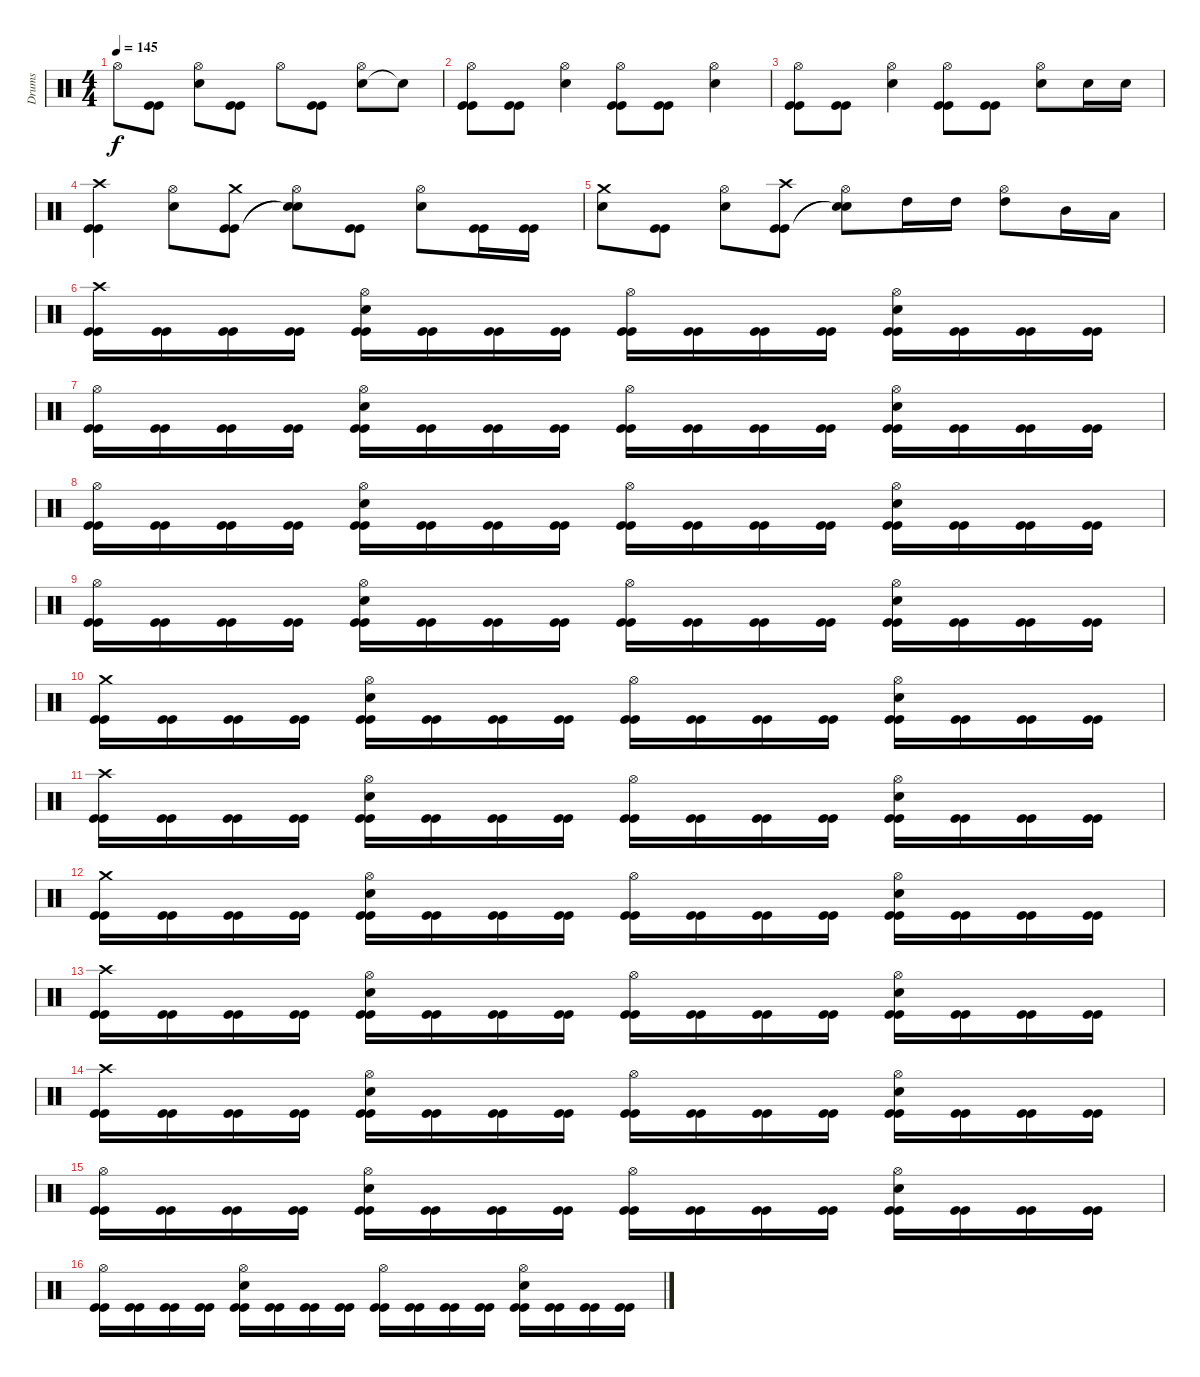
\track ("Drums" "Drums") {instrument percussion}
\staff {score}
\articulation defaults
\ts (4 4)
\tempo 145
\clef neutral
\ks c "Hi-Hat (open)".8{dy f}
("Kick (hit)" "Kick (hit)").8 ("Snare (hit) 2" "Hi-Hat (open)").8 ("Kick (hit)" "Kick (hit)").8 "Hi-Hat (open)".8 ("Kick (hit)" "Kick (hit)").8 ("Snare (hit) 2" "Hi-Hat (open)").8 "Snare (hit)"{t}.8 |
("Kick (hit)" "Kick (hit)" "Hi-Hat (open)").8 ("Kick (hit)" "Kick (hit)").8 ("Snare (hit) 2" "Hi-Hat (open)").4 ("Kick (hit)" "Kick (hit)" "Hi-Hat (open)").8 ("Kick (hit)" "Kick (hit)").8 ("Snare (hit) 2" "Hi-Hat (open)").4 |
("Kick (hit)" "Kick (hit)" "Hi-Hat (open)").8 ("Kick (hit)" "Kick (hit)").8 ("Snare (hit) 2" "Hi-Hat (open)").4 ("Kick (hit)" "Kick (hit)" "Hi-Hat (open)").8 ("Kick (hit)" "Kick (hit)").8 ("Snare (hit) 2" "Hi-Hat (open)").8 "Snare (hit) 2".16 "Snare (hit) 2".16 |
("Kick (hit)" "Kick (hit)" "Crash high (hit)").4 ("Snare (hit) 2" "Hi-Hat (open)").8 ("Kick (hit)" "Kick (hit)" "Crash medium (hit)").8 ("Snare (hit)"{t} "Snare (hit)"{t} "Hi-Hat (open)").8 ("Kick (hit)" "Kick (hit)").8 ("Snare (hit) 2" "Hi-Hat (open)").8 ("Kick (hit)" "Kick (hit)").16 ("Kick (hit)" "Kick (hit)").16 |
("Snare (hit) 2" "Crash medium (hit)").8 ("Kick (hit)" "Kick (hit)").8 ("Snare (hit) 2" "Hi-Hat (open)").8 ("Kick (hit)" "Kick (hit)" "Crash high (hit)").8 ("Snare (hit)"{t} "Snare (hit)"{t} "Hi-Hat (open)").8 "High Tom (hit)".16 "High Tom (hit)".16 ("High Tom (hit)" "Hi-Hat (open)").8 "Mid Tom (hit)".16 "Low Tom (hit)".16 |
("Kick (hit)" "Kick (hit)" "Crash high (hit)").16 ("Kick (hit)" "Kick (hit)").16 ("Kick (hit)" "Kick (hit)").16 ("Kick (hit)" "Kick (hit)").16 ("Kick (hit)" "Kick (hit)" "Snare (hit) 2" "Hi-Hat (open)").16 ("Kick (hit)" "Kick (hit)").16 ("Kick (hit)" "Kick (hit)").16 ("Kick (hit)" "Kick (hit)").16 ("Kick (hit)" "Kick (hit)" "Hi-Hat (open)").16 ("Kick (hit)" "Kick (hit)").16 ("Kick (hit)" "Kick (hit)").16 ("Kick (hit)" "Kick (hit)").16 ("Kick (hit)" "Kick (hit)" "Snare (hit) 2" "Hi-Hat (open)").16 ("Kick (hit)" "Kick (hit)").16 ("Kick (hit)" "Kick (hit)").16 ("Kick (hit)" "Kick (hit)").16 |
("Kick (hit)" "Kick (hit)" "Hi-Hat (open)").16 ("Kick (hit)" "Kick (hit)").16 ("Kick (hit)" "Kick (hit)").16 ("Kick (hit)" "Kick (hit)").16 ("Kick (hit)" "Kick (hit)" "Snare (hit) 2" "Hi-Hat (open)").16 ("Kick (hit)" "Kick (hit)").16 ("Kick (hit)" "Kick (hit)").16 ("Kick (hit)" "Kick (hit)").16 ("Kick (hit)" "Kick (hit)" "Hi-Hat (open)").16 ("Kick (hit)" "Kick (hit)").16 ("Kick (hit)" "Kick (hit)").16 ("Kick (hit)" "Kick (hit)").16 ("Kick (hit)" "Kick (hit)" "Snare (hit) 2" "Hi-Hat (open)").16 ("Kick (hit)" "Kick (hit)").16 ("Kick (hit)" "Kick (hit)").16 ("Kick (hit)" "Kick (hit)").16 |
("Kick (hit)" "Kick (hit)" "Hi-Hat (open)").16 ("Kick (hit)" "Kick (hit)").16 ("Kick (hit)" "Kick (hit)").16 ("Kick (hit)" "Kick (hit)").16 ("Kick (hit)" "Kick (hit)" "Snare (hit) 2" "Hi-Hat (open)").16 ("Kick (hit)" "Kick (hit)").16 ("Kick (hit)" "Kick (hit)").16 ("Kick (hit)" "Kick (hit)").16 ("Kick (hit)" "Kick (hit)" "Hi-Hat (open)").16 ("Kick (hit)" "Kick (hit)").16 ("Kick (hit)" "Kick (hit)").16 ("Kick (hit)" "Kick (hit)").16 ("Kick (hit)" "Kick (hit)" "Snare (hit) 2" "Hi-Hat (open)").16 ("Kick (hit)" "Kick (hit)").16 ("Kick (hit)" "Kick (hit)").16 ("Kick (hit)" "Kick (hit)").16 |
("Kick (hit)" "Kick (hit)" "Hi-Hat (open)").16 ("Kick (hit)" "Kick (hit)").16 ("Kick (hit)" "Kick (hit)").16 ("Kick (hit)" "Kick (hit)").16 ("Kick (hit)" "Kick (hit)" "Snare (hit) 2" "Hi-Hat (open)").16 ("Kick (hit)" "Kick (hit)").16 ("Kick (hit)" "Kick (hit)").16 ("Kick (hit)" "Kick (hit)").16 ("Kick (hit)" "Kick (hit)" "Hi-Hat (open)").16 ("Kick (hit)" "Kick (hit)").16 ("Kick (hit)" "Kick (hit)").16 ("Kick (hit)" "Kick (hit)").16 ("Kick (hit)" "Kick (hit)" "Snare (hit) 2" "Hi-Hat (open)").16 ("Kick (hit)" "Kick (hit)").16 ("Kick (hit)" "Kick (hit)").16 ("Kick (hit)" "Kick (hit)").16 |
("Kick (hit)" "Kick (hit)" "Crash medium (hit)").16 ("Kick (hit)" "Kick (hit)").16 ("Kick (hit)" "Kick (hit)").16 ("Kick (hit)" "Kick (hit)").16 ("Kick (hit)" "Kick (hit)" "Snare (hit) 2" "Hi-Hat (open)").16 ("Kick (hit)" "Kick (hit)").16 ("Kick (hit)" "Kick (hit)").16 ("Kick (hit)" "Kick (hit)").16 ("Kick (hit)" "Kick (hit)" "Hi-Hat (open)").16 ("Kick (hit)" "Kick (hit)").16 ("Kick (hit)" "Kick (hit)").16 ("Kick (hit)" "Kick (hit)").16 ("Kick (hit)" "Kick (hit)" "Snare (hit) 2" "Hi-Hat (open)").16 ("Kick (hit)" "Kick (hit)").16 ("Kick (hit)" "Kick (hit)").16 ("Kick (hit)" "Kick (hit)").16 |
("Kick (hit)" "Kick (hit)" "Crash high (hit)").16 ("Kick (hit)" "Kick (hit)").16 ("Kick (hit)" "Kick (hit)").16 ("Kick (hit)" "Kick (hit)").16 ("Kick (hit)" "Kick (hit)" "Snare (hit) 2" "Hi-Hat (open)").16 ("Kick (hit)" "Kick (hit)").16 ("Kick (hit)" "Kick (hit)").16 ("Kick (hit)" "Kick (hit)").16 ("Kick (hit)" "Kick (hit)" "Hi-Hat (open)").16 ("Kick (hit)" "Kick (hit)").16 ("Kick (hit)" "Kick (hit)").16 ("Kick (hit)" "Kick (hit)").16 ("Kick (hit)" "Kick (hit)" "Snare (hit) 2" "Hi-Hat (open)").16 ("Kick (hit)" "Kick (hit)").16 ("Kick (hit)" "Kick (hit)").16 ("Kick (hit)" "Kick (hit)").16 |
("Kick (hit)" "Kick (hit)" "Crash medium (hit)").16 ("Kick (hit)" "Kick (hit)").16 ("Kick (hit)" "Kick (hit)").16 ("Kick (hit)" "Kick (hit)").16 ("Kick (hit)" "Kick (hit)" "Snare (hit) 2" "Hi-Hat (open)").16 ("Kick (hit)" "Kick (hit)").16 ("Kick (hit)" "Kick (hit)").16 ("Kick (hit)" "Kick (hit)").16 ("Kick (hit)" "Kick (hit)" "Hi-Hat (open)").16 ("Kick (hit)" "Kick (hit)").16 ("Kick (hit)" "Kick (hit)").16 ("Kick (hit)" "Kick (hit)").16 ("Kick (hit)" "Kick (hit)" "Snare (hit) 2" "Hi-Hat (open)").16 ("Kick (hit)" "Kick (hit)").16 ("Kick (hit)" "Kick (hit)").16 ("Kick (hit)" "Kick (hit)").16 |
("Kick (hit)" "Kick (hit)" "Crash high (hit)").16 ("Kick (hit)" "Kick (hit)").16 ("Kick (hit)" "Kick (hit)").16 ("Kick (hit)" "Kick (hit)").16 ("Kick (hit)" "Kick (hit)" "Snare (hit) 2" "Hi-Hat (open)").16 ("Kick (hit)" "Kick (hit)").16 ("Kick (hit)" "Kick (hit)").16 ("Kick (hit)" "Kick (hit)").16 ("Kick (hit)" "Kick (hit)" "Hi-Hat (open)").16 ("Kick (hit)" "Kick (hit)").16 ("Kick (hit)" "Kick (hit)").16 ("Kick (hit)" "Kick (hit)").16 ("Kick (hit)" "Kick (hit)" "Snare (hit) 2" "Hi-Hat (open)").16 ("Kick (hit)" "Kick (hit)").16 ("Kick (hit)" "Kick (hit)").16 ("Kick (hit)" "Kick (hit)").16 |
("Kick (hit)" "Kick (hit)" "Crash high (hit)").16 ("Kick (hit)" "Kick (hit)").16 ("Kick (hit)" "Kick (hit)").16 ("Kick (hit)" "Kick (hit)").16 ("Kick (hit)" "Kick (hit)" "Snare (hit) 2" "Hi-Hat (open)").16 ("Kick (hit)" "Kick (hit)").16 ("Kick (hit)" "Kick (hit)").16 ("Kick (hit)" "Kick (hit)").16 ("Kick (hit)" "Kick (hit)" "Hi-Hat (open)").16 ("Kick (hit)" "Kick (hit)").16 ("Kick (hit)" "Kick (hit)").16 ("Kick (hit)" "Kick (hit)").16 ("Kick (hit)" "Kick (hit)" "Snare (hit) 2" "Hi-Hat (open)").16 ("Kick (hit)" "Kick (hit)").16 ("Kick (hit)" "Kick (hit)").16 ("Kick (hit)" "Kick (hit)").16 |
("Kick (hit)" "Kick (hit)" "Hi-Hat (open)").16 ("Kick (hit)" "Kick (hit)").16 ("Kick (hit)" "Kick (hit)").16 ("Kick (hit)" "Kick (hit)").16 ("Kick (hit)" "Kick (hit)" "Snare (hit) 2" "Hi-Hat (open)").16 ("Kick (hit)" "Kick (hit)").16 ("Kick (hit)" "Kick (hit)").16 ("Kick (hit)" "Kick (hit)").16 ("Kick (hit)" "Kick (hit)" "Hi-Hat (open)").16 ("Kick (hit)" "Kick (hit)").16 ("Kick (hit)" "Kick (hit)").16 ("Kick (hit)" "Kick (hit)").16 ("Kick (hit)" "Kick (hit)" "Snare (hit) 2" "Hi-Hat (open)").16 ("Kick (hit)" "Kick (hit)").16 ("Kick (hit)" "Kick (hit)").16 ("Kick (hit)" "Kick (hit)").16 |
("Kick (hit)" "Kick (hit)" "Hi-Hat (open)").16 ("Kick (hit)" "Kick (hit)").16 ("Kick (hit)" "Kick (hit)").16 ("Kick (hit)" "Kick (hit)").16 ("Kick (hit)" "Kick (hit)" "Snare (hit) 2" "Hi-Hat (open)").16 ("Kick (hit)" "Kick (hit)").16 ("Kick (hit)" "Kick (hit)").16 ("Kick (hit)" "Kick (hit)").16 ("Kick (hit)" "Kick (hit)" "Hi-Hat (open)").16 ("Kick (hit)" "Kick (hit)").16 ("Kick (hit)" "Kick (hit)").16 ("Kick (hit)" "Kick (hit)").16 ("Kick (hit)" "Kick (hit)" "Snare (hit) 2" "Hi-Hat (open)").16 ("Kick (hit)" "Kick (hit)").16 ("Kick (hit)" "Kick (hit)").16 ("Kick (hit)" "Kick (hit)").16
